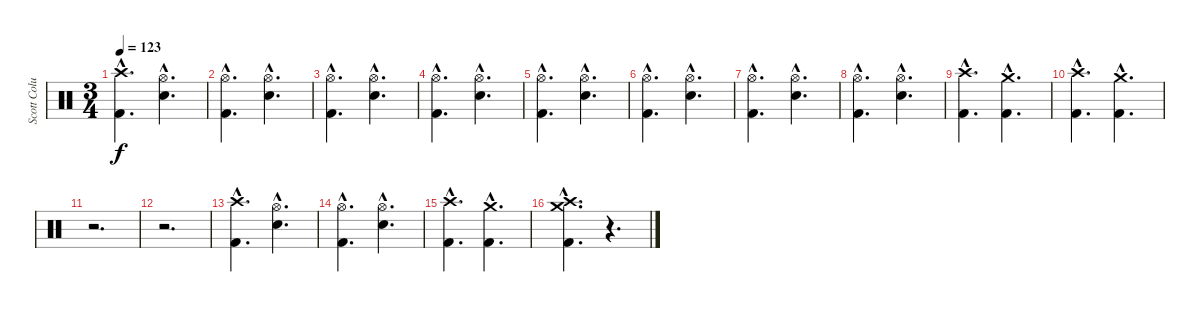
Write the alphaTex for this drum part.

\track ("Scott Columbus" "Scott Colu") {instrument percussion}
\staff {score}
\articulation defaults
\ts (3 4)
\tempo 123
\clef neutral
\ks c
("Crash high (hit)"{hac} "Kick (hit) 2"{hac}).4{d dy f} ("Hi-Hat (open)"{hac} "Snare (hit) 2"{hac}).4{d} |
("Hi-Hat (open)"{hac} "Kick (hit) 2"{hac}).4{d} ("Hi-Hat (open)"{hac} "Snare (hit) 2"{hac}).4{d} |
("Hi-Hat (open)"{hac} "Kick (hit) 2"{hac}).4{d} ("Hi-Hat (open)"{hac} "Snare (hit) 2"{hac}).4{d} |
("Hi-Hat (open)"{hac} "Kick (hit) 2"{hac}).4{d} ("Hi-Hat (open)"{hac} "Snare (hit) 2"{hac}).4{d} |
("Hi-Hat (open)"{hac} "Kick (hit) 2"{hac}).4{d} ("Hi-Hat (open)"{hac} "Snare (hit) 2"{hac}).4{d} |
("Hi-Hat (open)"{hac} "Kick (hit) 2"{hac}).4{d} ("Hi-Hat (open)"{hac} "Snare (hit) 2"{hac}).4{d} |
("Hi-Hat (open)"{hac} "Kick (hit) 2"{hac}).4{d} ("Hi-Hat (open)"{hac} "Snare (hit) 2"{hac}).4{d} |
("Hi-Hat (open)"{hac} "Kick (hit) 2"{hac}).4{d} ("Hi-Hat (open)"{hac} "Snare (hit) 2"{hac}).4{d} |
("Crash high (hit)"{hac} "Kick (hit) 2"{hac}).4{d} ("Crash medium (hit)"{hac} "Kick (hit) 2"{hac}).4{d} |
("Crash high (hit)"{hac} "Kick (hit) 2"{hac}).4{d} ("Crash medium (hit)"{hac} "Kick (hit) 2"{hac}).4{d} |
r.2{d} |
r.2{d} |
("Crash high (hit)"{hac} "Kick (hit) 2"{hac}).4{d} ("Hi-Hat (open)"{hac} "Snare (hit) 2"{hac}).4{d} |
("Hi-Hat (open)"{hac} "Kick (hit) 2"{hac}).4{d} ("Hi-Hat (open)"{hac} "Snare (hit) 2"{hac}).4{d} |
("Crash high (hit)"{hac} "Kick (hit) 2"{hac}).4{d} ("Crash medium (hit)"{hac} "Kick (hit) 2"{hac}).4{d} |
("Crash high (hit)"{hac} "Crash medium (hit)"{hac} "Kick (hit) 2"{hac}).4{d} r.4{d}
